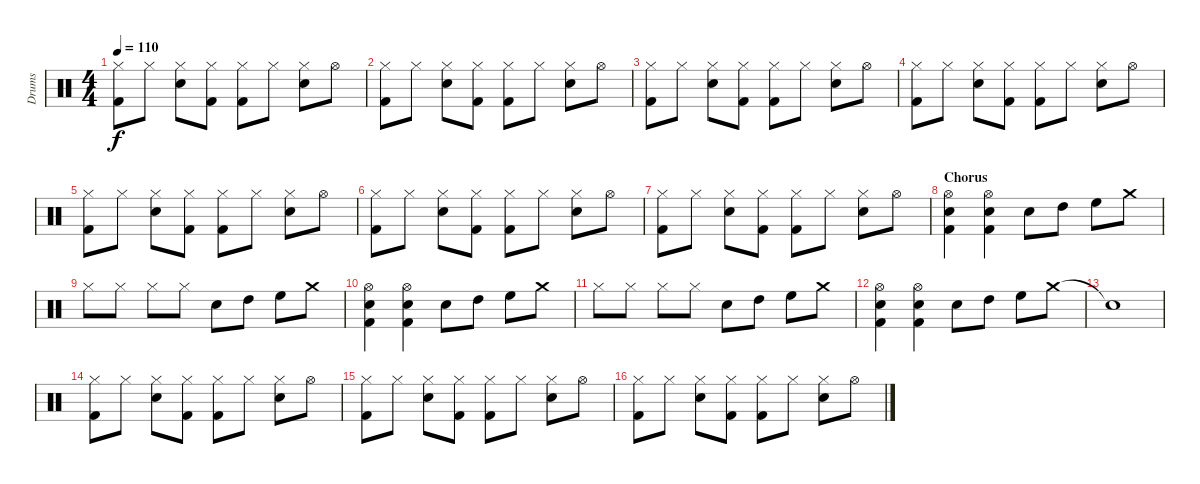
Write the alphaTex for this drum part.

\track ("Drums" "Drums") {instrument percussion}
\staff {score}
\articulation defaults
\ts (4 4)
\tempo 110
\clef neutral
\ks c
("Hi-Hat (closed)" "Kick (hit) 2").8{dy f} "Hi-Hat (closed)".8 ("Hi-Hat (closed)" "Snare (hit) 2").8 ("Hi-Hat (closed)" "Kick (hit) 2").8 ("Hi-Hat (closed)" "Kick (hit) 2").8 "Hi-Hat (closed)".8 ("Hi-Hat (closed)" "Snare (hit) 2").8 "Hi-Hat (open)".8 |
("Hi-Hat (closed)" "Kick (hit) 2").8 "Hi-Hat (closed)".8 ("Hi-Hat (closed)" "Snare (hit) 2").8 ("Hi-Hat (closed)" "Kick (hit) 2").8 ("Hi-Hat (closed)" "Kick (hit) 2").8 "Hi-Hat (closed)".8 ("Hi-Hat (closed)" "Snare (hit) 2").8 "Hi-Hat (open)".8 |
("Hi-Hat (closed)" "Kick (hit) 2").8 "Hi-Hat (closed)".8 ("Hi-Hat (closed)" "Snare (hit) 2").8 ("Hi-Hat (closed)" "Kick (hit) 2").8 ("Hi-Hat (closed)" "Kick (hit) 2").8 "Hi-Hat (closed)".8 ("Hi-Hat (closed)" "Snare (hit) 2").8 "Hi-Hat (open)".8 |
("Hi-Hat (closed)" "Kick (hit) 2").8 "Hi-Hat (closed)".8 ("Hi-Hat (closed)" "Snare (hit) 2").8 ("Hi-Hat (closed)" "Kick (hit) 2").8 ("Hi-Hat (closed)" "Kick (hit) 2").8 "Hi-Hat (closed)".8 ("Hi-Hat (closed)" "Snare (hit) 2").8 "Hi-Hat (open)".8 |
("Hi-Hat (closed)" "Kick (hit) 2").8 "Hi-Hat (closed)".8 ("Hi-Hat (closed)" "Snare (hit) 2").8 ("Hi-Hat (closed)" "Kick (hit) 2").8 ("Hi-Hat (closed)" "Kick (hit) 2").8 "Hi-Hat (closed)".8 ("Hi-Hat (closed)" "Snare (hit) 2").8 "Hi-Hat (open)".8 |
("Hi-Hat (closed)" "Kick (hit) 2").8 "Hi-Hat (closed)".8 ("Hi-Hat (closed)" "Snare (hit) 2").8 ("Hi-Hat (closed)" "Kick (hit) 2").8 ("Hi-Hat (closed)" "Kick (hit) 2").8 "Hi-Hat (closed)".8 ("Hi-Hat (closed)" "Snare (hit) 2").8 "Hi-Hat (open)".8 |
("Hi-Hat (closed)" "Kick (hit) 2").8 "Hi-Hat (closed)".8 ("Hi-Hat (closed)" "Snare (hit) 2").8 ("Hi-Hat (closed)" "Kick (hit) 2").8 ("Hi-Hat (closed)" "Kick (hit) 2").8 "Hi-Hat (closed)".8 ("Hi-Hat (closed)" "Snare (hit) 2").8 "Hi-Hat (open)".8 |
\section ("" "Chorus")
("Snare (hit) 2" "Kick (hit) 2" "Hi-Hat (open)").4 ("Snare (hit) 2" "Kick (hit) 2" "Hi-Hat (open)").4 "Electric Snare (hit)".8 "High Tom (hit)".8 "High Floor Tom (hit)".8 "Crash medium (hit)".8 |
"Hi-Hat (closed)".8 "Hi-Hat (closed)".8 "Hi-Hat (closed)".8 "Hi-Hat (closed)".8 "Electric Snare (hit)".8 "High Tom (hit)".8 "High Floor Tom (hit)".8 "Crash medium (hit)".8 |
("Snare (hit) 2" "Kick (hit) 2" "Hi-Hat (open)").4 ("Snare (hit) 2" "Kick (hit) 2" "Hi-Hat (open)").4 "Electric Snare (hit)".8 "High Tom (hit)".8 "High Floor Tom (hit)".8 "Crash medium (hit)".8 |
"Hi-Hat (closed)".8 "Hi-Hat (closed)".8 "Hi-Hat (closed)".8 "Hi-Hat (closed)".8 "Electric Snare (hit)".8 "High Tom (hit)".8 "High Floor Tom (hit)".8 "Crash medium (hit)".8 |
("Snare (hit) 2" "Kick (hit) 2" "Hi-Hat (open)").4 ("Snare (hit) 2" "Kick (hit) 2" "Hi-Hat (open)").4 "Electric Snare (hit)".8 "High Tom (hit)".8 "High Floor Tom (hit)".8 "Crash medium (hit)".8 |
"Snare (hit)"{t}.1 |
("Hi-Hat (closed)" "Kick (hit) 2").8 "Hi-Hat (closed)".8 ("Hi-Hat (closed)" "Snare (hit) 2").8 ("Hi-Hat (closed)" "Kick (hit) 2").8 ("Hi-Hat (closed)" "Kick (hit) 2").8 "Hi-Hat (closed)".8 ("Hi-Hat (closed)" "Snare (hit) 2").8 "Hi-Hat (open)".8 |
("Hi-Hat (closed)" "Kick (hit) 2").8 "Hi-Hat (closed)".8 ("Hi-Hat (closed)" "Snare (hit) 2").8 ("Hi-Hat (closed)" "Kick (hit) 2").8 ("Hi-Hat (closed)" "Kick (hit) 2").8 "Hi-Hat (closed)".8 ("Hi-Hat (closed)" "Snare (hit) 2").8 "Hi-Hat (open)".8 |
("Hi-Hat (closed)" "Kick (hit) 2").8 "Hi-Hat (closed)".8 ("Hi-Hat (closed)" "Snare (hit) 2").8 ("Hi-Hat (closed)" "Kick (hit) 2").8 ("Hi-Hat (closed)" "Kick (hit) 2").8 "Hi-Hat (closed)".8 ("Hi-Hat (closed)" "Snare (hit) 2").8 "Hi-Hat (open)".8
